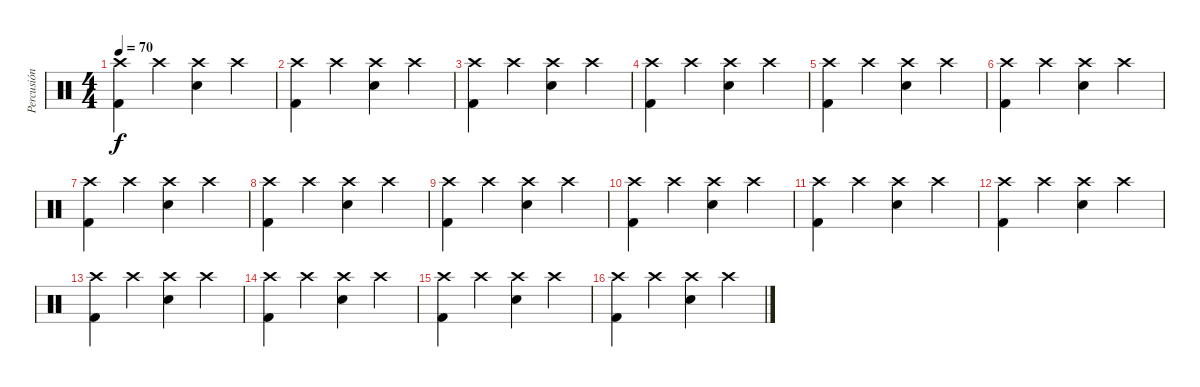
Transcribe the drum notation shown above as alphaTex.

\track ("Percusión" "Percusión") {instrument percussion}
\staff {score}
\articulation defaults
\ts (4 4)
\tempo 70
\clef neutral
\ks c
("Crash high (hit)" "Kick (hit) 2").4{dy f} "Crash high (hit)".4 ("Crash high (hit)" "Snare (hit) 2").4 "Crash high (hit)".4 |
("Crash high (hit)" "Kick (hit) 2").4 "Crash high (hit)".4 ("Crash high (hit)" "Snare (hit) 2").4 "Crash high (hit)".4 |
("Crash high (hit)" "Kick (hit) 2").4 "Crash high (hit)".4 ("Crash high (hit)" "Snare (hit) 2").4 "Crash high (hit)".4 |
("Crash high (hit)" "Kick (hit) 2").4 "Crash high (hit)".4 ("Crash high (hit)" "Snare (hit) 2").4 "Crash high (hit)".4 |
("Crash high (hit)" "Kick (hit) 2").4 "Crash high (hit)".4 ("Crash high (hit)" "Snare (hit) 2").4 "Crash high (hit)".4 |
("Crash high (hit)" "Kick (hit) 2").4 "Crash high (hit)".4 ("Crash high (hit)" "Snare (hit) 2").4 "Crash high (hit)".4 |
("Crash high (hit)" "Kick (hit) 2").4 "Crash high (hit)".4 ("Crash high (hit)" "Snare (hit) 2").4 "Crash high (hit)".4 |
("Crash high (hit)" "Kick (hit) 2").4 "Crash high (hit)".4 ("Crash high (hit)" "Snare (hit) 2").4 "Crash high (hit)".4 |
("Crash high (hit)" "Kick (hit) 2").4 "Crash high (hit)".4 ("Crash high (hit)" "Snare (hit) 2").4 "Crash high (hit)".4 |
("Crash high (hit)" "Kick (hit) 2").4 "Crash high (hit)".4 ("Crash high (hit)" "Snare (hit) 2").4 "Crash high (hit)".4 |
("Crash high (hit)" "Kick (hit) 2").4 "Crash high (hit)".4 ("Crash high (hit)" "Snare (hit) 2").4 "Crash high (hit)".4 |
("Crash high (hit)" "Kick (hit) 2").4 "Crash high (hit)".4 ("Crash high (hit)" "Snare (hit) 2").4 "Crash high (hit)".4 |
("Crash high (hit)" "Kick (hit) 2").4 "Crash high (hit)".4 ("Crash high (hit)" "Snare (hit) 2").4 "Crash high (hit)".4 |
("Crash high (hit)" "Kick (hit) 2").4 "Crash high (hit)".4 ("Crash high (hit)" "Snare (hit) 2").4 "Crash high (hit)".4 |
("Crash high (hit)" "Kick (hit) 2").4 "Crash high (hit)".4 ("Crash high (hit)" "Snare (hit) 2").4 "Crash high (hit)".4 |
("Crash high (hit)" "Kick (hit) 2").4 "Crash high (hit)".4 ("Crash high (hit)" "Snare (hit) 2").4 "Crash high (hit)".4
